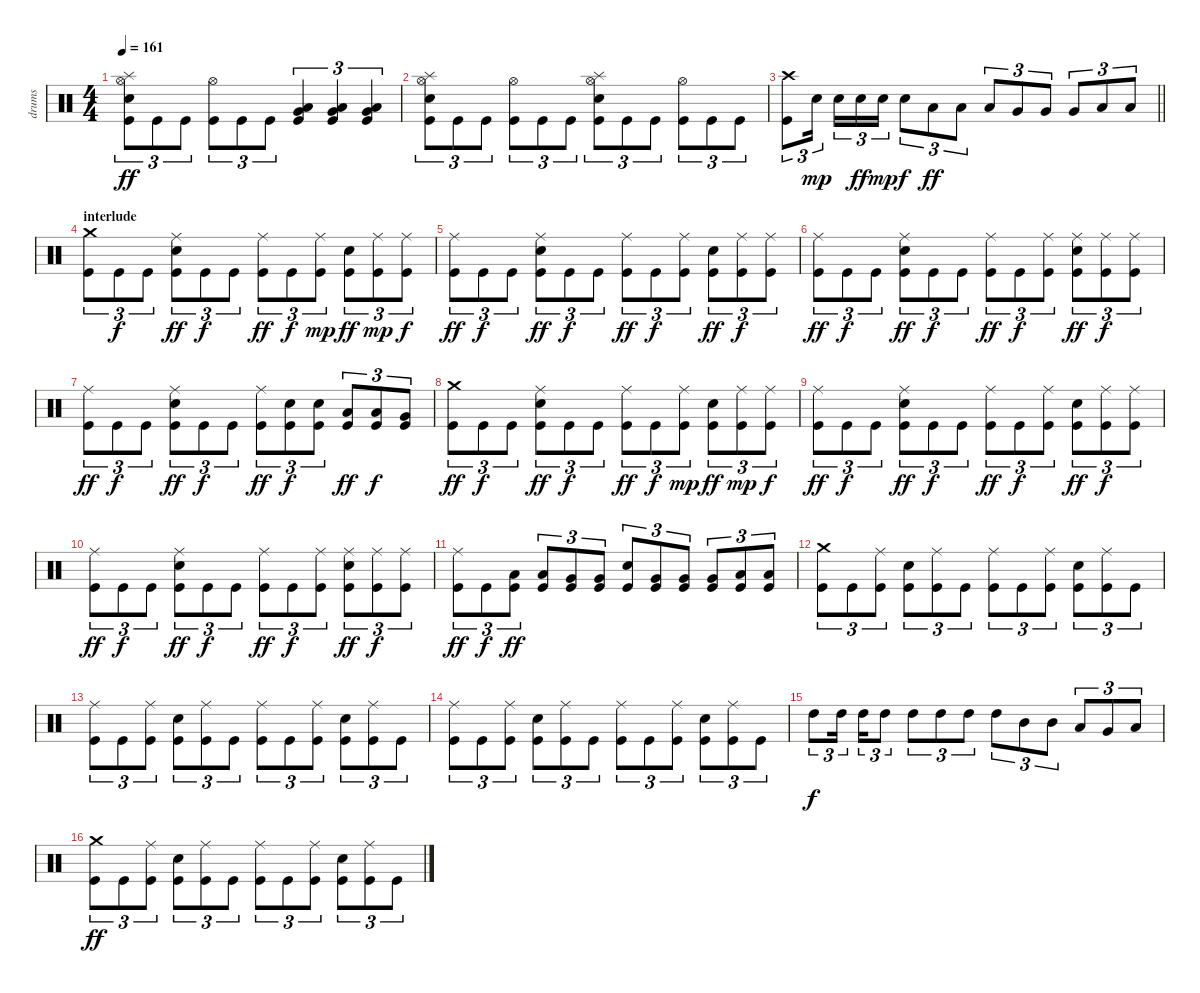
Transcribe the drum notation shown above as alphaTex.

\track ("drums" "drums") {instrument percussion}
\staff {score}
\articulation defaults
\ts (4 4)
\tempo 161
\clef neutral
\ks c
("Splash (hit)" "Hi-Hat (open)" "Electric Snare (hit)" "Kick (hit)").8{tu (3 2) dy ff} "Kick (hit)".8{tu (3 2)} "Kick (hit)".8{tu (3 2)} ("Hi-Hat (open)" "Kick (hit)").8{tu (3 2)} "Kick (hit)".8{tu (3 2)} "Kick (hit)".8{tu (3 2)} ("Very Low Tom (hit)" "Low Floor Tom (hit)" "Kick (hit)").4{tu (3 2)} ("Very Low Tom (hit)" "Low Floor Tom (hit)" "Kick (hit)").4{tu (3 2)} ("Very Low Tom (hit)" "Low Floor Tom (hit)" "Kick (hit)").4{tu (3 2)} |
("Splash (hit)" "Hi-Hat (open)" "Electric Snare (hit)" "Kick (hit)").8{tu (3 2)} "Kick (hit)".8{tu (3 2)} "Kick (hit)".8{tu (3 2)} ("Hi-Hat (open)" "Kick (hit)").8{tu (3 2)} "Kick (hit)".8{tu (3 2)} "Kick (hit)".8{tu (3 2)} ("Splash (hit)" "Hi-Hat (open)" "Electric Snare (hit)" "Kick (hit)").8{tu (3 2)} "Kick (hit)".8{tu (3 2)} "Kick (hit)".8{tu (3 2)} ("Hi-Hat (open)" "Kick (hit)").8{tu (3 2)} "Kick (hit)".8{tu (3 2)} "Kick (hit)".8{tu (3 2)} |
\barLineRight lightlight
("Crash high (hit)" "Kick (hit)").8{tu (3 2)} "Electric Snare (hit)".16{tu (3 2) dy mp beam splitsecondary} "Electric Snare (hit)".16{tu (3 2)} "Electric Snare (hit)".16{tu (3 2) dy ff} "Electric Snare (hit)".16{tu (3 2) dy mp} "Electric Snare (hit)".8{tu (3 2) dy f} "Low Tom (hit)".8{tu (3 2) dy ff} "Low Tom (hit)".8{tu (3 2)} "Low Tom (hit)".8{tu (3 2)} "Very Low Tom (hit)".8{tu (3 2)} "Very Low Tom (hit)".8{tu (3 2)} "Very Low Tom (hit)".8{tu (3 2)} "Low Floor Tom (hit)".8{tu (3 2)} "Low Floor Tom (hit)".8{tu (3 2)} |
\section ("" "interlude")
("Crash medium (hit)" "Kick (hit)").8{tu (3 2)} "Kick (hit)".8{tu (3 2) dy f} "Kick (hit)".8{tu (3 2)} ("Ride (middle)" "Electric Snare (hit)" "Kick (hit)").8{tu (3 2) dy ff} "Kick (hit)".8{tu (3 2) dy f} "Kick (hit)".8{tu (3 2)} ("Ride (middle)" "Kick (hit)").8{tu (3 2) dy ff} "Kick (hit)".8{tu (3 2) dy f} ("Ride (middle)" "Kick (hit)").8{tu (3 2) dy mp} ("Electric Snare (hit)" "Kick (hit)").8{tu (3 2) dy ff} ("Ride (middle)" "Kick (hit)").8{tu (3 2) dy mp} ("Ride (middle)" "Kick (hit)").8{tu (3 2) dy f} |
("Ride (middle)" "Kick (hit)").8{tu (3 2) dy ff} "Kick (hit)".8{tu (3 2) dy f} "Kick (hit)".8{tu (3 2)} ("Ride (middle)" "Electric Snare (hit)" "Kick (hit)").8{tu (3 2) dy ff} "Kick (hit)".8{tu (3 2) dy f} "Kick (hit)".8{tu (3 2)} ("Ride (middle)" "Kick (hit)").8{tu (3 2) dy ff} "Kick (hit)".8{tu (3 2) dy f} ("Ride (middle)" "Kick (hit)").8{tu (3 2)} ("Electric Snare (hit)" "Kick (hit)").8{tu (3 2) dy ff} ("Ride (middle)" "Kick (hit)").8{tu (3 2) dy f} ("Ride (middle)" "Kick (hit)").8{tu (3 2)} |
("Ride (middle)" "Kick (hit)").8{tu (3 2) dy ff} "Kick (hit)".8{tu (3 2) dy f} "Kick (hit)".8{tu (3 2)} ("Ride (middle)" "Electric Snare (hit)" "Kick (hit)").8{tu (3 2) dy ff} "Kick (hit)".8{tu (3 2) dy f} "Kick (hit)".8{tu (3 2)} ("Ride (middle)" "Kick (hit)").8{tu (3 2) dy ff} "Kick (hit)".8{tu (3 2) dy f} ("Ride (middle)" "Kick (hit)").8{tu (3 2)} ("Ride (middle)" "Electric Snare (hit)" "Kick (hit)").8{tu (3 2) dy ff} ("Ride (middle)" "Kick (hit)").8{tu (3 2) dy f} ("Ride (middle)" "Kick (hit)").8{tu (3 2)} |
("Ride (middle)" "Kick (hit)").8{tu (3 2) dy ff} "Kick (hit)".8{tu (3 2) dy f} "Kick (hit)".8{tu (3 2)} ("Ride (middle)" "Electric Snare (hit)" "Kick (hit)").8{tu (3 2) dy ff} "Kick (hit)".8{tu (3 2) dy f} "Kick (hit)".8{tu (3 2)} ("Ride (middle)" "Kick (hit)").8{tu (3 2) dy ff} ("Electric Snare (hit)" "Kick (hit)").8{tu (3 2) dy f} ("Electric Snare (hit)" "Kick (hit)").8{tu (3 2)} ("Low Tom (hit)" "Kick (hit)").8{tu (3 2) dy ff} ("Low Tom (hit)" "Kick (hit)").8{tu (3 2) dy f} ("Very Low Tom (hit)" "Kick (hit)").8{tu (3 2)} |
("Crash medium (hit)" "Kick (hit)").8{tu (3 2) dy ff} "Kick (hit)".8{tu (3 2) dy f} "Kick (hit)".8{tu (3 2)} ("Ride (middle)" "Electric Snare (hit)" "Kick (hit)").8{tu (3 2) dy ff} "Kick (hit)".8{tu (3 2) dy f} "Kick (hit)".8{tu (3 2)} ("Ride (middle)" "Kick (hit)").8{tu (3 2) dy ff} "Kick (hit)".8{tu (3 2) dy f} ("Ride (middle)" "Kick (hit)").8{tu (3 2) dy mp} ("Electric Snare (hit)" "Kick (hit)").8{tu (3 2) dy ff} ("Ride (middle)" "Kick (hit)").8{tu (3 2) dy mp} ("Ride (middle)" "Kick (hit)").8{tu (3 2) dy f} |
("Ride (middle)" "Kick (hit)").8{tu (3 2) dy ff} "Kick (hit)".8{tu (3 2) dy f} "Kick (hit)".8{tu (3 2)} ("Ride (middle)" "Electric Snare (hit)" "Kick (hit)").8{tu (3 2) dy ff} "Kick (hit)".8{tu (3 2) dy f} "Kick (hit)".8{tu (3 2)} ("Ride (middle)" "Kick (hit)").8{tu (3 2) dy ff} "Kick (hit)".8{tu (3 2) dy f} ("Ride (middle)" "Kick (hit)").8{tu (3 2)} ("Electric Snare (hit)" "Kick (hit)").8{tu (3 2) dy ff} ("Ride (middle)" "Kick (hit)").8{tu (3 2) dy f} ("Ride (middle)" "Kick (hit)").8{tu (3 2)} |
("Ride (middle)" "Kick (hit)").8{tu (3 2) dy ff} "Kick (hit)".8{tu (3 2) dy f} "Kick (hit)".8{tu (3 2)} ("Ride (middle)" "Electric Snare (hit)" "Kick (hit)").8{tu (3 2) dy ff} "Kick (hit)".8{tu (3 2) dy f} "Kick (hit)".8{tu (3 2)} ("Ride (middle)" "Kick (hit)").8{tu (3 2) dy ff} "Kick (hit)".8{tu (3 2) dy f} ("Ride (middle)" "Kick (hit)").8{tu (3 2)} ("Ride (middle)" "Electric Snare (hit)" "Kick (hit)").8{tu (3 2) dy ff} ("Ride (middle)" "Kick (hit)").8{tu (3 2) dy f} ("Ride (middle)" "Kick (hit)").8{tu (3 2)} |
("Ride (middle)" "Kick (hit)").8{tu (3 2) dy ff} "Kick (hit)".8{tu (3 2) dy f} ("Low Tom (hit)" "Kick (hit)").8{tu (3 2) dy ff} ("Low Tom (hit)" "Kick (hit)").8{tu (3 2)} ("Very Low Tom (hit)" "Kick (hit)").8{tu (3 2)} ("Very Low Tom (hit)" "Kick (hit)").8{tu (3 2)} ("Electric Snare (hit)" "Kick (hit)").8{tu (3 2)} ("Very Low Tom (hit)" "Kick (hit)").8{tu (3 2)} ("Very Low Tom (hit)" "Kick (hit)").8{tu (3 2)} ("Very Low Tom (hit)" "Kick (hit)").8{tu (3 2)} ("Low Floor Tom (hit)" "Kick (hit)").8{tu (3 2)} ("Low Floor Tom (hit)" "Kick (hit)").8{tu (3 2)} |
("Crash medium (hit)" "Kick (hit)").8{tu (3 2)} "Kick (hit)".8{tu (3 2)} ("Ride (middle)" "Kick (hit)").8{tu (3 2)} ("Electric Snare (hit)" "Kick (hit)").8{tu (3 2)} ("Ride (middle)" "Kick (hit)").8{tu (3 2)} "Kick (hit)".8{tu (3 2)} ("Ride (middle)" "Kick (hit)").8{tu (3 2)} "Kick (hit)".8{tu (3 2)} ("Ride (middle)" "Kick (hit)").8{tu (3 2)} ("Electric Snare (hit)" "Kick (hit)").8{tu (3 2)} ("Ride (middle)" "Kick (hit)").8{tu (3 2)} "Kick (hit)".8{tu (3 2)} |
("Ride (middle)" "Kick (hit)").8{tu (3 2)} "Kick (hit)".8{tu (3 2)} ("Ride (middle)" "Kick (hit)").8{tu (3 2)} ("Electric Snare (hit)" "Kick (hit)").8{tu (3 2)} ("Ride (middle)" "Kick (hit)").8{tu (3 2)} "Kick (hit)".8{tu (3 2)} ("Ride (middle)" "Kick (hit)").8{tu (3 2)} "Kick (hit)".8{tu (3 2)} ("Ride (middle)" "Kick (hit)").8{tu (3 2)} ("Electric Snare (hit)" "Kick (hit)").8{tu (3 2)} ("Ride (middle)" "Kick (hit)").8{tu (3 2)} "Kick (hit)".8{tu (3 2)} |
("Ride (middle)" "Kick (hit)").8{tu (3 2)} "Kick (hit)".8{tu (3 2)} ("Ride (middle)" "Kick (hit)").8{tu (3 2)} ("Electric Snare (hit)" "Kick (hit)").8{tu (3 2)} ("Ride (middle)" "Kick (hit)").8{tu (3 2)} "Kick (hit)".8{tu (3 2)} ("Ride (middle)" "Kick (hit)").8{tu (3 2)} "Kick (hit)".8{tu (3 2)} ("Ride (middle)" "Kick (hit)").8{tu (3 2)} ("Electric Snare (hit)" "Kick (hit)").8{tu (3 2)} ("Ride (middle)" "Kick (hit)").8{tu (3 2)} "Kick (hit)".8{tu (3 2)} |
"High Tom (hit)".8{tu (3 2) dy f} "High Tom (hit)".16{tu (3 2) beam splitsecondary} "High Tom (hit)".16{tu (3 2)} "High Tom (hit)".8{tu (3 2)} "High Tom (hit)".8{tu (3 2)} "High Tom (hit)".8{tu (3 2)} "High Tom (hit)".8{tu (3 2)} "High Tom (hit)".8{tu (3 2)} "Mid Tom (hit)".8{tu (3 2)} "Mid Tom (hit)".8{tu (3 2)} "Low Tom (hit)".8{tu (3 2)} "Very Low Tom (hit)".8{tu (3 2)} "Low Floor Tom (hit)".8{tu (3 2)} |
("Crash medium (hit)" "Kick (hit)").8{tu (3 2) dy ff} "Kick (hit)".8{tu (3 2)} ("Ride (middle)" "Kick (hit)").8{tu (3 2)} ("Electric Snare (hit)" "Kick (hit)").8{tu (3 2)} ("Ride (middle)" "Kick (hit)").8{tu (3 2)} "Kick (hit)".8{tu (3 2)} ("Ride (middle)" "Kick (hit)").8{tu (3 2)} "Kick (hit)".8{tu (3 2)} ("Ride (middle)" "Kick (hit)").8{tu (3 2)} ("Electric Snare (hit)" "Kick (hit)").8{tu (3 2)} ("Ride (middle)" "Kick (hit)").8{tu (3 2)} "Kick (hit)".8{tu (3 2)}
